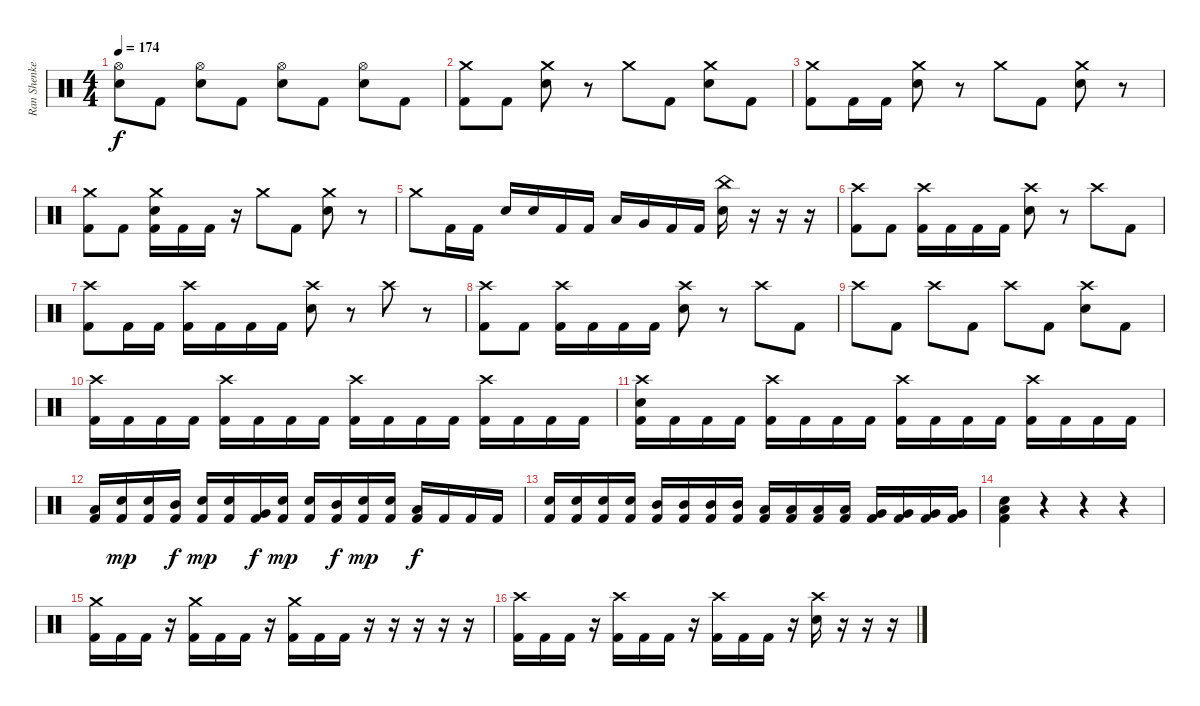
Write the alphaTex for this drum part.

\track ("Ran Shenkerman" "Ran Shenke") {instrument percussion}
\staff {score}
\articulation defaults
\ts (4 4)
\tempo 174
\clef neutral
\ks c
("Hi-Hat (open)" "Snare (hit) 2").8{dy f} "Kick (hit) 2".8 ("Hi-Hat (open)" "Snare (hit) 2").8 "Kick (hit) 2".8 ("Hi-Hat (open)" "Snare (hit) 2").8 "Kick (hit) 2".8 ("Hi-Hat (open)" "Snare (hit) 2").8 "Kick (hit) 2".8 |
("Crash medium (hit)" "Kick (hit) 2").8 "Kick (hit) 2".8 ("Crash medium (hit)" "Snare (hit) 2").8 r.8 "Crash medium (hit)".8 "Kick (hit) 2".8 ("Crash medium (hit)" "Snare (hit) 2").8 "Kick (hit) 2".8 |
("Crash medium (hit)" "Kick (hit) 2").8 "Kick (hit) 2".16 "Kick (hit) 2".16 ("Crash medium (hit)" "Snare (hit) 2").8 r.8 "Crash medium (hit)".8 "Kick (hit) 2".8 ("Crash medium (hit)" "Snare (hit) 2").8 r.8 |
("Crash medium (hit)" "Kick (hit) 2").8 "Kick (hit) 2".8 ("Crash medium (hit)" "Snare (hit) 2" "Kick (hit) 2").16 "Kick (hit) 2".16 "Kick (hit) 2".16 r.16 "Crash medium (hit)".8 "Kick (hit) 2".8 ("Crash medium (hit)" "Snare (hit) 2").8 r.8 |
"Crash medium (hit)".8 "Kick (hit) 2".16 "Kick (hit) 2".16 "Snare (hit) 2".16 "Snare (hit) 2".16 "Kick (hit) 2".16 "Kick (hit) 2".16 "Low Floor Tom (hit)".16 "Very Low Tom (hit)".16 "Kick (hit) 2".16 "Kick (hit) 2".16 ("China (hit)" "Snare (hit) 2").16 r.16 r.16 r.16 |
("Crash high (hit)" "Kick (hit) 2").8 "Kick (hit) 2".8 ("Crash high (hit)" "Kick (hit) 2").16 "Kick (hit) 2".16 "Kick (hit) 2".16 "Kick (hit) 2".16 ("Crash high (hit)" "Snare (hit) 2").8 r.8 "Crash high (hit)".8 "Kick (hit) 2".8 |
("Crash high (hit)" "Kick (hit) 2").8 "Kick (hit) 2".16 "Kick (hit) 2".16 ("Crash high (hit)" "Kick (hit) 2").16 "Kick (hit) 2".16 "Kick (hit) 2".16 "Kick (hit) 2".16 ("Crash high (hit)" "Snare (hit) 2").8 r.8 "Crash high (hit)".8 r.8 |
("Crash high (hit)" "Kick (hit) 2").8 "Kick (hit) 2".8 ("Crash high (hit)" "Kick (hit) 2").16 "Kick (hit) 2".16 "Kick (hit) 2".16 "Kick (hit) 2".16 ("Crash high (hit)" "Snare (hit) 2").8 r.8 "Crash high (hit)".8 "Kick (hit) 2".8 |
"Crash high (hit)".8 "Kick (hit) 2".8 "Crash high (hit)".8 "Kick (hit) 2".8 "Crash high (hit)".8 "Kick (hit) 2".8 ("Crash high (hit)" "Snare (hit) 2").8 "Kick (hit) 2".8 |
("Crash high (hit)" "Kick (hit) 2").16 "Kick (hit) 2".16 "Kick (hit) 2".16 "Kick (hit) 2".16 ("Crash high (hit)" "Kick (hit) 2").16 "Kick (hit) 2".16 "Kick (hit) 2".16 "Kick (hit) 2".16 ("Crash high (hit)" "Kick (hit) 2").16 "Kick (hit) 2".16 "Kick (hit) 2".16 "Kick (hit) 2".16 ("Crash high (hit)" "Kick (hit) 2").16 "Kick (hit) 2".16 "Kick (hit) 2".16 "Kick (hit) 2".16 |
("Crash high (hit)" "Snare (hit) 2" "Kick (hit) 2").16 "Kick (hit) 2".16 "Kick (hit) 2".16 "Kick (hit) 2".16 ("Crash high (hit)" "Kick (hit) 2").16 "Kick (hit) 2".16 "Kick (hit) 2".16 "Kick (hit) 2".16 ("Crash high (hit)" "Kick (hit) 2").16 "Kick (hit) 2".16 "Kick (hit) 2".16 "Kick (hit) 2".16 ("Crash high (hit)" "Kick (hit) 2").16 "Kick (hit) 2".16 "Kick (hit) 2".16 "Kick (hit) 2".16 |
("Low Tom (hit)" "Kick (hit) 2").16 ("Snare (hit) 2" "Kick (hit) 2").16{dy mp} ("Snare (hit) 2" "Kick (hit) 2").16 ("Mid Tom (hit)" "Kick (hit) 2").16{dy f} ("Snare (hit) 2" "Kick (hit) 2").16{dy mp} ("Snare (hit) 2" "Kick (hit) 2").16 ("Very Low Tom (hit)" "Kick (hit) 2").16{dy f} ("Snare (hit) 2" "Kick (hit) 2").16{dy mp} ("Snare (hit) 2" "Kick (hit) 2").16 ("Mid Tom (hit)" "Kick (hit) 2").16{dy f} ("Snare (hit) 2" "Kick (hit) 2").16{dy mp} ("Snare (hit) 2" "Kick (hit) 2").16 ("Low Floor Tom (hit)" "Kick (hit) 2").16{dy f} "Kick (hit) 2".16 "Kick (hit) 2".16 "Kick (hit) 2".16 |
("Snare (hit) 2" "Kick (hit) 2").16 ("Snare (hit) 2" "Kick (hit) 2").16 ("Snare (hit) 2" "Kick (hit) 2").16 ("Snare (hit) 2" "Kick (hit) 2").16 ("Mid Tom (hit)" "Kick (hit) 2").16 ("Mid Tom (hit)" "Kick (hit) 2").16 ("Mid Tom (hit)" "Kick (hit) 2").16 ("Mid Tom (hit)" "Kick (hit) 2").16 ("Low Tom (hit)" "Kick (hit) 2").16 ("Low Tom (hit)" "Kick (hit) 2").16 ("Low Tom (hit)" "Kick (hit) 2").16 ("Low Tom (hit)" "Kick (hit) 2").16 ("Very Low Tom (hit)" "Kick (hit) 2").16 ("Very Low Tom (hit)" "Kick (hit) 2").16 ("Very Low Tom (hit)" "Kick (hit) 2").16 ("Very Low Tom (hit)" "Kick (hit) 2").16 |
("Snare (hit) 2" "Low Floor Tom (hit)" "Kick (hit) 2").4 r.4 r.4 r.4 |
("Crash medium (hit)" "Kick (hit) 2").16 "Kick (hit) 2".16 "Kick (hit) 2".16 r.16 ("Crash medium (hit)" "Kick (hit) 2").16 "Kick (hit) 2".16 "Kick (hit) 2".16 r.16 ("Crash medium (hit)" "Kick (hit) 2").16 "Kick (hit) 2".16 "Kick (hit) 2".16 r.16 r.16 r.16 r.16 r.16 |
("Crash high (hit)" "Kick (hit) 2").16 "Kick (hit) 2".16 "Kick (hit) 2".16 r.16 ("Crash high (hit)" "Kick (hit) 2").16 "Kick (hit) 2".16 "Kick (hit) 2".16 r.16 ("Crash high (hit)" "Kick (hit) 2").16 "Kick (hit) 2".16 "Kick (hit) 2".16 r.16 ("Crash high (hit)" "Snare (hit) 2").16 r.16 r.16 r.16
